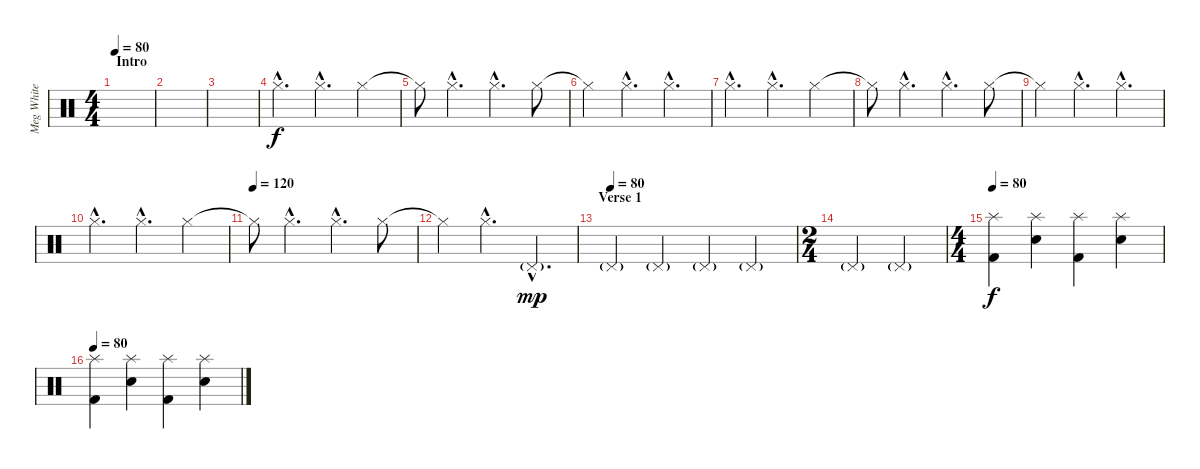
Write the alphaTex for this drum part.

\track ("Meg White - Drums" "Meg White ") {instrument percussion}
\staff {score}
\articulation defaults
\ts (4 4)
\section ("" "Intro")
\tempo 80
\tempo 120
\tempo 80
\clef neutral
\ks c
|
|
|
"Hi-Hat (closed)"{hac}.4{d} "Hi-Hat (closed)"{hac}.4{d} "Hi-Hat (closed)".4 |
"Hi-Hat (closed)"{t}.8 "Hi-Hat (closed)"{hac}.4{d} "Hi-Hat (closed)"{hac}.4{d} "Hi-Hat (closed)".8 |
"Hi-Hat (closed)"{t}.4 "Hi-Hat (closed)"{hac}.4{d} "Hi-Hat (closed)"{hac}.4{d} |
"Hi-Hat (closed)"{hac}.4{d} "Hi-Hat (closed)"{hac}.4{d} "Hi-Hat (closed)".4 |
"Hi-Hat (closed)"{t}.8 "Hi-Hat (closed)"{hac}.4{d} "Hi-Hat (closed)"{hac}.4{d} "Hi-Hat (closed)".8 |
"Hi-Hat (closed)"{t}.4 "Hi-Hat (closed)"{hac}.4{d} "Hi-Hat (closed)"{hac}.4{d} |
"Hi-Hat (closed)"{hac}.4{d} "Hi-Hat (closed)"{hac}.4{d} "Hi-Hat (closed)".4 |
\tempo (120)
"Hi-Hat (closed)"{t}.8 "Hi-Hat (closed)"{hac}.4{d} "Hi-Hat (closed)"{hac}.4{d} "Hi-Hat (closed)".8 |
"Hi-Hat (closed)"{t}.4 "Hi-Hat (closed)"{hac}.4{d} "Pedal Hi-Hat (hit)"{g hac}.4{d dy mp} |
\section ("" "Verse 1")
\tempo (80)
"Pedal Hi-Hat (hit)"{g}.4 "Pedal Hi-Hat (hit)"{g}.4 "Pedal Hi-Hat (hit)"{g}.4 "Pedal Hi-Hat (hit)"{g}.4 |
\ts (2 4)
"Pedal Hi-Hat (hit)"{g}.4 "Pedal Hi-Hat (hit)"{g}.4 |
\ts (4 4)
\tempo 80
("Splash (hit)" "Kick (hit) 2").4{dy f} ("Splash (hit)" "Snare (hit) 2").4 ("Splash (hit)" "Kick (hit) 2").4 ("Splash (hit)" "Snare (hit) 2").4 |
\tempo 80
("Splash (hit)" "Kick (hit) 2").4 ("Splash (hit)" "Snare (hit) 2").4 ("Splash (hit)" "Kick (hit) 2").4 ("Splash (hit)" "Snare (hit) 2").4
